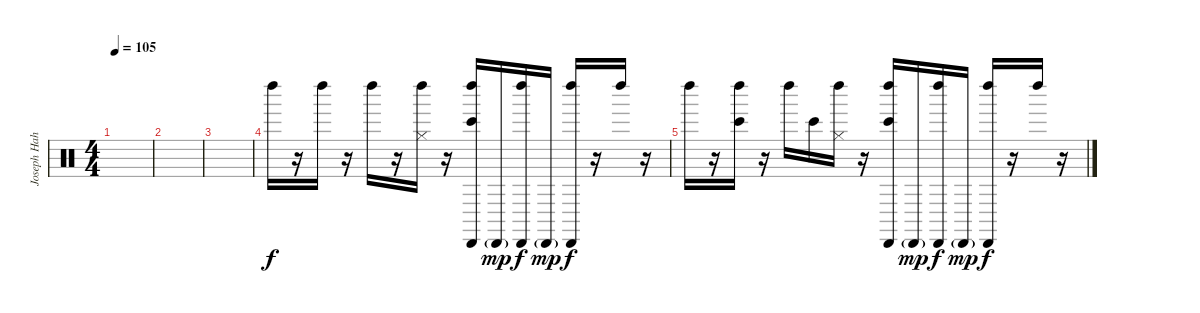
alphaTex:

\track ("Joseph Hahn (Sampler 3)" "Joseph Hah") {instrument percussion}
\staff {score}
\articulation defaults
\ts (4 4)
\tempo 105
\clef neutral
\ks c
|
|
|
"Left Maraca (hit)".16 r.16 "Left Maraca (hit)".16 r.16 "Left Maraca (hit)".16 r.16 ("Left Maraca (hit)" "Hi-Hat (closed)").16 r.16 ("Cabasa (hit)" "Left Maraca (hit)" "Bongo High (hit)").16 "Cabasa (hit)"{g}.16{dy mp} ("Cabasa (hit)" "Left Maraca (hit)").16{dy f} "Cabasa (hit)"{g}.16{dy mp} ("Cabasa (hit)" "Left Maraca (hit)").16{dy f} r.16 "Left Maraca (hit)".16 r.16 |
"Left Maraca (hit)".16 r.16 ("Left Maraca (hit)" "Bongo High (hit)").16 r.16 "Left Maraca (hit)".16 "Bongo High (hit)".16 ("Left Maraca (hit)" "Hi-Hat (closed)").16 r.16 ("Cabasa (hit)" "Left Maraca (hit)" "Bongo High (hit)").16 "Cabasa (hit)"{g}.16{dy mp} ("Cabasa (hit)" "Left Maraca (hit)").16{dy f} "Cabasa (hit)"{g}.16{dy mp} ("Cabasa (hit)" "Left Maraca (hit)").16{dy f} r.16 "Left Maraca (hit)".16 r.16
